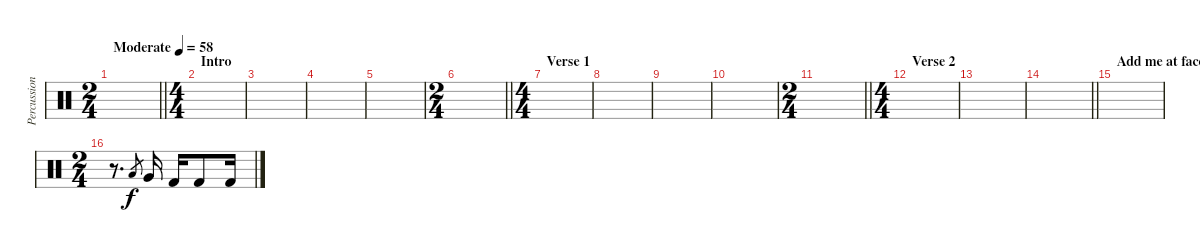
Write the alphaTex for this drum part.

\track ("Percussion" "Percussion") {instrument percussion}
\staff {score}
\articulation defaults
\ts (2 4)
\tempo (58 "Moderate")
\clef neutral
\barLineRight lightlight
\ks c
|
\ts (4 4)
\section ("" "Intro")
|
|
|
|
\ts (2 4)
\barLineRight lightlight
|
\ts (4 4)
\section ("" "Verse 1")
|
|
|
|
\ts (2 4)
\barLineRight lightlight
|
\ts (4 4)
\section ("" "Verse 2")
|
|
\barLineRight lightlight
|
\section ("" "Add me at facebook iz ziee")
|
\ts (2 4)
r.8{d} "Low Tom (hit)".8{gr} "Very Low Tom (hit)".16 "Kick (hit) 2".16 "Kick (hit) 2".8 "Kick (hit) 2".16
